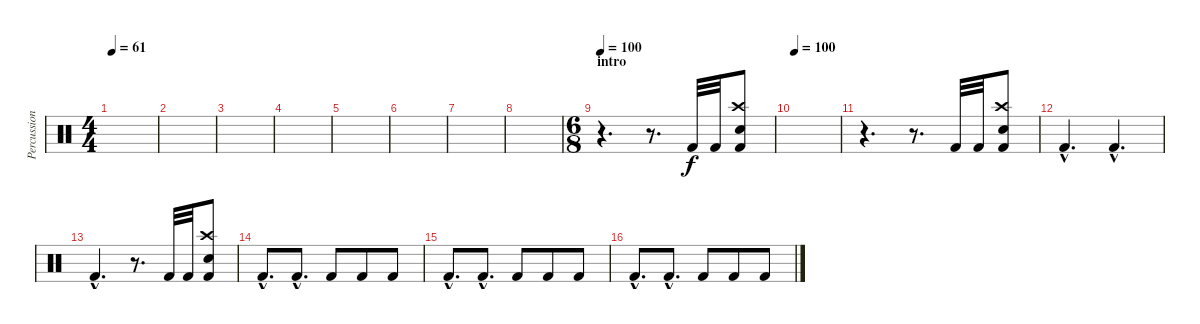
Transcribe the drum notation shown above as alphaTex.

\track ("Percussion" "Percussion") {instrument percussion}
\staff {score}
\articulation defaults
\ts (4 4)
\tempo 61
\clef neutral
\ks c
|
|
|
|
|
|
|
|
\ts (6 8)
\section ("" "intro")
\tempo 100
r.4{d} r.8{d} "Kick (hit) 2".32 "Kick (hit) 2".32 ("Crash high (hit)" "Snare (hit) 2" "Kick (hit) 2").8 |
\tempo 100
|
r.4{d} r.8{d} "Kick (hit) 2".32 "Kick (hit) 2".32 ("Crash high (hit)" "Snare (hit) 2" "Kick (hit) 2").8 |
"Kick (hit) 2"{hac}.4{d} "Kick (hit) 2"{hac}.4{d} |
"Kick (hit) 2"{hac}.4{d} r.8{d} "Kick (hit) 2".32 "Kick (hit) 2".32 ("Crash high (hit)" "Snare (hit) 2" "Kick (hit) 2").8 |
"Kick (hit) 2"{hac}.8{d} "Kick (hit) 2"{hac}.8{d} "Kick (hit) 2".8 "Kick (hit) 2".8 "Kick (hit) 2".8 |
"Kick (hit) 2"{hac}.8{d} "Kick (hit) 2"{hac}.8{d} "Kick (hit) 2".8 "Kick (hit) 2".8 "Kick (hit) 2".8 |
"Kick (hit) 2"{hac}.8{d} "Kick (hit) 2"{hac}.8{d} "Kick (hit) 2".8 "Kick (hit) 2".8 "Kick (hit) 2".8
